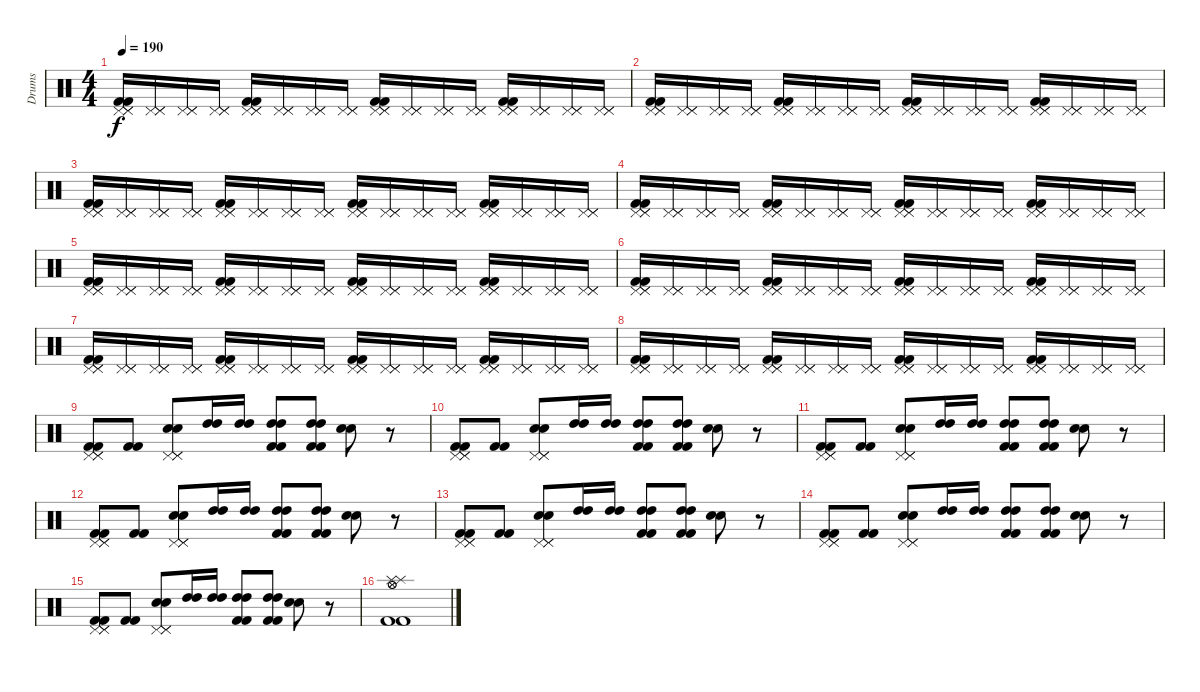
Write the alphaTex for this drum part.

\track ("Drums" "Drums") {instrument percussion}
\staff {score}
\articulation defaults
\ts (4 4)
\tempo 190
\clef neutral
\ks c
("Pedal Hi-Hat (hit)" "Pedal Hi-Hat (hit)" "Pedal Hi-Hat (hit)" "Kick (hit) 2" "Kick (hit) 2").16{dy f} ("Pedal Hi-Hat (hit)" "Pedal Hi-Hat (hit)" "Pedal Hi-Hat (hit)").16 ("Pedal Hi-Hat (hit)" "Pedal Hi-Hat (hit)" "Pedal Hi-Hat (hit)").16 ("Pedal Hi-Hat (hit)" "Pedal Hi-Hat (hit)" "Pedal Hi-Hat (hit)").16 ("Pedal Hi-Hat (hit)" "Pedal Hi-Hat (hit)" "Pedal Hi-Hat (hit)" "Kick (hit) 2" "Kick (hit) 2").16 ("Pedal Hi-Hat (hit)" "Pedal Hi-Hat (hit)" "Pedal Hi-Hat (hit)").16 ("Pedal Hi-Hat (hit)" "Pedal Hi-Hat (hit)" "Pedal Hi-Hat (hit)").16 ("Pedal Hi-Hat (hit)" "Pedal Hi-Hat (hit)" "Pedal Hi-Hat (hit)").16 ("Pedal Hi-Hat (hit)" "Pedal Hi-Hat (hit)" "Pedal Hi-Hat (hit)" "Kick (hit) 2" "Kick (hit) 2").16 ("Pedal Hi-Hat (hit)" "Pedal Hi-Hat (hit)" "Pedal Hi-Hat (hit)").16 ("Pedal Hi-Hat (hit)" "Pedal Hi-Hat (hit)" "Pedal Hi-Hat (hit)").16 ("Pedal Hi-Hat (hit)" "Pedal Hi-Hat (hit)" "Pedal Hi-Hat (hit)").16 ("Pedal Hi-Hat (hit)" "Pedal Hi-Hat (hit)" "Pedal Hi-Hat (hit)" "Kick (hit) 2" "Kick (hit) 2").16 ("Pedal Hi-Hat (hit)" "Pedal Hi-Hat (hit)" "Pedal Hi-Hat (hit)").16 ("Pedal Hi-Hat (hit)" "Pedal Hi-Hat (hit)" "Pedal Hi-Hat (hit)").16 ("Pedal Hi-Hat (hit)" "Pedal Hi-Hat (hit)" "Pedal Hi-Hat (hit)").16 |
("Pedal Hi-Hat (hit)" "Pedal Hi-Hat (hit)" "Pedal Hi-Hat (hit)" "Kick (hit) 2" "Kick (hit) 2").16 ("Pedal Hi-Hat (hit)" "Pedal Hi-Hat (hit)" "Pedal Hi-Hat (hit)").16 ("Pedal Hi-Hat (hit)" "Pedal Hi-Hat (hit)" "Pedal Hi-Hat (hit)").16 ("Pedal Hi-Hat (hit)" "Pedal Hi-Hat (hit)" "Pedal Hi-Hat (hit)").16 ("Pedal Hi-Hat (hit)" "Pedal Hi-Hat (hit)" "Pedal Hi-Hat (hit)" "Kick (hit) 2" "Kick (hit) 2").16 ("Pedal Hi-Hat (hit)" "Pedal Hi-Hat (hit)" "Pedal Hi-Hat (hit)").16 ("Pedal Hi-Hat (hit)" "Pedal Hi-Hat (hit)" "Pedal Hi-Hat (hit)").16 ("Pedal Hi-Hat (hit)" "Pedal Hi-Hat (hit)" "Pedal Hi-Hat (hit)").16 ("Pedal Hi-Hat (hit)" "Pedal Hi-Hat (hit)" "Pedal Hi-Hat (hit)" "Kick (hit) 2" "Kick (hit) 2").16 ("Pedal Hi-Hat (hit)" "Pedal Hi-Hat (hit)" "Pedal Hi-Hat (hit)").16 ("Pedal Hi-Hat (hit)" "Pedal Hi-Hat (hit)" "Pedal Hi-Hat (hit)").16 ("Pedal Hi-Hat (hit)" "Pedal Hi-Hat (hit)" "Pedal Hi-Hat (hit)").16 ("Pedal Hi-Hat (hit)" "Pedal Hi-Hat (hit)" "Pedal Hi-Hat (hit)" "Kick (hit) 2" "Kick (hit) 2").16 ("Pedal Hi-Hat (hit)" "Pedal Hi-Hat (hit)" "Pedal Hi-Hat (hit)").16 ("Pedal Hi-Hat (hit)" "Pedal Hi-Hat (hit)" "Pedal Hi-Hat (hit)").16 ("Pedal Hi-Hat (hit)" "Pedal Hi-Hat (hit)" "Pedal Hi-Hat (hit)").16 |
("Pedal Hi-Hat (hit)" "Pedal Hi-Hat (hit)" "Pedal Hi-Hat (hit)" "Kick (hit) 2" "Kick (hit) 2").16 ("Pedal Hi-Hat (hit)" "Pedal Hi-Hat (hit)" "Pedal Hi-Hat (hit)").16 ("Pedal Hi-Hat (hit)" "Pedal Hi-Hat (hit)" "Pedal Hi-Hat (hit)").16 ("Pedal Hi-Hat (hit)" "Pedal Hi-Hat (hit)" "Pedal Hi-Hat (hit)").16 ("Pedal Hi-Hat (hit)" "Pedal Hi-Hat (hit)" "Pedal Hi-Hat (hit)" "Kick (hit) 2" "Kick (hit) 2").16 ("Pedal Hi-Hat (hit)" "Pedal Hi-Hat (hit)" "Pedal Hi-Hat (hit)").16 ("Pedal Hi-Hat (hit)" "Pedal Hi-Hat (hit)" "Pedal Hi-Hat (hit)").16 ("Pedal Hi-Hat (hit)" "Pedal Hi-Hat (hit)" "Pedal Hi-Hat (hit)").16 ("Pedal Hi-Hat (hit)" "Pedal Hi-Hat (hit)" "Pedal Hi-Hat (hit)" "Kick (hit) 2" "Kick (hit) 2").16 ("Pedal Hi-Hat (hit)" "Pedal Hi-Hat (hit)" "Pedal Hi-Hat (hit)").16 ("Pedal Hi-Hat (hit)" "Pedal Hi-Hat (hit)" "Pedal Hi-Hat (hit)").16 ("Pedal Hi-Hat (hit)" "Pedal Hi-Hat (hit)" "Pedal Hi-Hat (hit)").16 ("Pedal Hi-Hat (hit)" "Pedal Hi-Hat (hit)" "Pedal Hi-Hat (hit)" "Kick (hit) 2" "Kick (hit) 2").16 ("Pedal Hi-Hat (hit)" "Pedal Hi-Hat (hit)" "Pedal Hi-Hat (hit)").16 ("Pedal Hi-Hat (hit)" "Pedal Hi-Hat (hit)" "Pedal Hi-Hat (hit)").16 ("Pedal Hi-Hat (hit)" "Pedal Hi-Hat (hit)" "Pedal Hi-Hat (hit)").16 |
("Pedal Hi-Hat (hit)" "Pedal Hi-Hat (hit)" "Pedal Hi-Hat (hit)" "Kick (hit) 2" "Kick (hit) 2").16 ("Pedal Hi-Hat (hit)" "Pedal Hi-Hat (hit)" "Pedal Hi-Hat (hit)").16 ("Pedal Hi-Hat (hit)" "Pedal Hi-Hat (hit)" "Pedal Hi-Hat (hit)").16 ("Pedal Hi-Hat (hit)" "Pedal Hi-Hat (hit)" "Pedal Hi-Hat (hit)").16 ("Pedal Hi-Hat (hit)" "Pedal Hi-Hat (hit)" "Pedal Hi-Hat (hit)" "Kick (hit) 2" "Kick (hit) 2").16 ("Pedal Hi-Hat (hit)" "Pedal Hi-Hat (hit)" "Pedal Hi-Hat (hit)").16 ("Pedal Hi-Hat (hit)" "Pedal Hi-Hat (hit)" "Pedal Hi-Hat (hit)").16 ("Pedal Hi-Hat (hit)" "Pedal Hi-Hat (hit)" "Pedal Hi-Hat (hit)").16 ("Pedal Hi-Hat (hit)" "Pedal Hi-Hat (hit)" "Pedal Hi-Hat (hit)" "Kick (hit) 2" "Kick (hit) 2").16 ("Pedal Hi-Hat (hit)" "Pedal Hi-Hat (hit)" "Pedal Hi-Hat (hit)").16 ("Pedal Hi-Hat (hit)" "Pedal Hi-Hat (hit)" "Pedal Hi-Hat (hit)").16 ("Pedal Hi-Hat (hit)" "Pedal Hi-Hat (hit)" "Pedal Hi-Hat (hit)").16 ("Pedal Hi-Hat (hit)" "Pedal Hi-Hat (hit)" "Pedal Hi-Hat (hit)" "Kick (hit) 2" "Kick (hit) 2").16 ("Pedal Hi-Hat (hit)" "Pedal Hi-Hat (hit)" "Pedal Hi-Hat (hit)").16 ("Pedal Hi-Hat (hit)" "Pedal Hi-Hat (hit)" "Pedal Hi-Hat (hit)").16 ("Pedal Hi-Hat (hit)" "Pedal Hi-Hat (hit)" "Pedal Hi-Hat (hit)").16 |
("Pedal Hi-Hat (hit)" "Pedal Hi-Hat (hit)" "Pedal Hi-Hat (hit)" "Kick (hit) 2" "Kick (hit) 2").16 ("Pedal Hi-Hat (hit)" "Pedal Hi-Hat (hit)" "Pedal Hi-Hat (hit)").16 ("Pedal Hi-Hat (hit)" "Pedal Hi-Hat (hit)" "Pedal Hi-Hat (hit)").16 ("Pedal Hi-Hat (hit)" "Pedal Hi-Hat (hit)" "Pedal Hi-Hat (hit)").16 ("Pedal Hi-Hat (hit)" "Pedal Hi-Hat (hit)" "Pedal Hi-Hat (hit)" "Kick (hit) 2" "Kick (hit) 2").16 ("Pedal Hi-Hat (hit)" "Pedal Hi-Hat (hit)" "Pedal Hi-Hat (hit)").16 ("Pedal Hi-Hat (hit)" "Pedal Hi-Hat (hit)" "Pedal Hi-Hat (hit)").16 ("Pedal Hi-Hat (hit)" "Pedal Hi-Hat (hit)" "Pedal Hi-Hat (hit)").16 ("Pedal Hi-Hat (hit)" "Pedal Hi-Hat (hit)" "Pedal Hi-Hat (hit)" "Kick (hit) 2" "Kick (hit) 2").16 ("Pedal Hi-Hat (hit)" "Pedal Hi-Hat (hit)" "Pedal Hi-Hat (hit)").16 ("Pedal Hi-Hat (hit)" "Pedal Hi-Hat (hit)" "Pedal Hi-Hat (hit)").16 ("Pedal Hi-Hat (hit)" "Pedal Hi-Hat (hit)" "Pedal Hi-Hat (hit)").16 ("Pedal Hi-Hat (hit)" "Pedal Hi-Hat (hit)" "Pedal Hi-Hat (hit)" "Kick (hit) 2" "Kick (hit) 2").16 ("Pedal Hi-Hat (hit)" "Pedal Hi-Hat (hit)" "Pedal Hi-Hat (hit)").16 ("Pedal Hi-Hat (hit)" "Pedal Hi-Hat (hit)" "Pedal Hi-Hat (hit)").16 ("Pedal Hi-Hat (hit)" "Pedal Hi-Hat (hit)" "Pedal Hi-Hat (hit)").16 |
("Pedal Hi-Hat (hit)" "Pedal Hi-Hat (hit)" "Pedal Hi-Hat (hit)" "Kick (hit) 2" "Kick (hit) 2").16 ("Pedal Hi-Hat (hit)" "Pedal Hi-Hat (hit)" "Pedal Hi-Hat (hit)").16 ("Pedal Hi-Hat (hit)" "Pedal Hi-Hat (hit)" "Pedal Hi-Hat (hit)").16 ("Pedal Hi-Hat (hit)" "Pedal Hi-Hat (hit)" "Pedal Hi-Hat (hit)").16 ("Pedal Hi-Hat (hit)" "Pedal Hi-Hat (hit)" "Pedal Hi-Hat (hit)" "Kick (hit) 2" "Kick (hit) 2").16 ("Pedal Hi-Hat (hit)" "Pedal Hi-Hat (hit)" "Pedal Hi-Hat (hit)").16 ("Pedal Hi-Hat (hit)" "Pedal Hi-Hat (hit)" "Pedal Hi-Hat (hit)").16 ("Pedal Hi-Hat (hit)" "Pedal Hi-Hat (hit)" "Pedal Hi-Hat (hit)").16 ("Pedal Hi-Hat (hit)" "Pedal Hi-Hat (hit)" "Pedal Hi-Hat (hit)" "Kick (hit) 2" "Kick (hit) 2").16 ("Pedal Hi-Hat (hit)" "Pedal Hi-Hat (hit)" "Pedal Hi-Hat (hit)").16 ("Pedal Hi-Hat (hit)" "Pedal Hi-Hat (hit)" "Pedal Hi-Hat (hit)").16 ("Pedal Hi-Hat (hit)" "Pedal Hi-Hat (hit)" "Pedal Hi-Hat (hit)").16 ("Pedal Hi-Hat (hit)" "Pedal Hi-Hat (hit)" "Pedal Hi-Hat (hit)" "Kick (hit) 2" "Kick (hit) 2").16 ("Pedal Hi-Hat (hit)" "Pedal Hi-Hat (hit)" "Pedal Hi-Hat (hit)").16 ("Pedal Hi-Hat (hit)" "Pedal Hi-Hat (hit)" "Pedal Hi-Hat (hit)").16 ("Pedal Hi-Hat (hit)" "Pedal Hi-Hat (hit)" "Pedal Hi-Hat (hit)").16 |
("Pedal Hi-Hat (hit)" "Pedal Hi-Hat (hit)" "Pedal Hi-Hat (hit)" "Kick (hit) 2" "Kick (hit) 2").16 ("Pedal Hi-Hat (hit)" "Pedal Hi-Hat (hit)" "Pedal Hi-Hat (hit)").16 ("Pedal Hi-Hat (hit)" "Pedal Hi-Hat (hit)" "Pedal Hi-Hat (hit)").16 ("Pedal Hi-Hat (hit)" "Pedal Hi-Hat (hit)" "Pedal Hi-Hat (hit)").16 ("Pedal Hi-Hat (hit)" "Pedal Hi-Hat (hit)" "Pedal Hi-Hat (hit)" "Kick (hit) 2" "Kick (hit) 2").16 ("Pedal Hi-Hat (hit)" "Pedal Hi-Hat (hit)" "Pedal Hi-Hat (hit)").16 ("Pedal Hi-Hat (hit)" "Pedal Hi-Hat (hit)" "Pedal Hi-Hat (hit)").16 ("Pedal Hi-Hat (hit)" "Pedal Hi-Hat (hit)" "Pedal Hi-Hat (hit)").16 ("Pedal Hi-Hat (hit)" "Pedal Hi-Hat (hit)" "Pedal Hi-Hat (hit)" "Kick (hit) 2" "Kick (hit) 2").16 ("Pedal Hi-Hat (hit)" "Pedal Hi-Hat (hit)" "Pedal Hi-Hat (hit)").16 ("Pedal Hi-Hat (hit)" "Pedal Hi-Hat (hit)" "Pedal Hi-Hat (hit)").16 ("Pedal Hi-Hat (hit)" "Pedal Hi-Hat (hit)" "Pedal Hi-Hat (hit)").16 ("Pedal Hi-Hat (hit)" "Pedal Hi-Hat (hit)" "Pedal Hi-Hat (hit)" "Kick (hit) 2" "Kick (hit) 2").16 ("Pedal Hi-Hat (hit)" "Pedal Hi-Hat (hit)" "Pedal Hi-Hat (hit)").16 ("Pedal Hi-Hat (hit)" "Pedal Hi-Hat (hit)" "Pedal Hi-Hat (hit)").16 ("Pedal Hi-Hat (hit)" "Pedal Hi-Hat (hit)" "Pedal Hi-Hat (hit)").16 |
("Pedal Hi-Hat (hit)" "Pedal Hi-Hat (hit)" "Pedal Hi-Hat (hit)" "Kick (hit) 2" "Kick (hit) 2").16 ("Pedal Hi-Hat (hit)" "Pedal Hi-Hat (hit)" "Pedal Hi-Hat (hit)").16 ("Pedal Hi-Hat (hit)" "Pedal Hi-Hat (hit)" "Pedal Hi-Hat (hit)").16 ("Pedal Hi-Hat (hit)" "Pedal Hi-Hat (hit)" "Pedal Hi-Hat (hit)").16 ("Pedal Hi-Hat (hit)" "Pedal Hi-Hat (hit)" "Pedal Hi-Hat (hit)" "Kick (hit) 2" "Kick (hit) 2").16 ("Pedal Hi-Hat (hit)" "Pedal Hi-Hat (hit)" "Pedal Hi-Hat (hit)").16 ("Pedal Hi-Hat (hit)" "Pedal Hi-Hat (hit)" "Pedal Hi-Hat (hit)").16 ("Pedal Hi-Hat (hit)" "Pedal Hi-Hat (hit)" "Pedal Hi-Hat (hit)").16 ("Pedal Hi-Hat (hit)" "Pedal Hi-Hat (hit)" "Pedal Hi-Hat (hit)" "Kick (hit) 2" "Kick (hit) 2").16 ("Pedal Hi-Hat (hit)" "Pedal Hi-Hat (hit)" "Pedal Hi-Hat (hit)").16 ("Pedal Hi-Hat (hit)" "Pedal Hi-Hat (hit)" "Pedal Hi-Hat (hit)").16 ("Pedal Hi-Hat (hit)" "Pedal Hi-Hat (hit)" "Pedal Hi-Hat (hit)").16 ("Pedal Hi-Hat (hit)" "Pedal Hi-Hat (hit)" "Pedal Hi-Hat (hit)" "Kick (hit) 2" "Kick (hit) 2").16 ("Pedal Hi-Hat (hit)" "Pedal Hi-Hat (hit)" "Pedal Hi-Hat (hit)").16 ("Pedal Hi-Hat (hit)" "Pedal Hi-Hat (hit)" "Pedal Hi-Hat (hit)").16 ("Pedal Hi-Hat (hit)" "Pedal Hi-Hat (hit)" "Pedal Hi-Hat (hit)").16 |
("Kick (hit) 2" "Kick (hit) 2" "Pedal Hi-Hat (hit)" "Pedal Hi-Hat (hit)" "Pedal Hi-Hat (hit)").8 ("Kick (hit) 2" "Kick (hit) 2").8 ("Snare (hit) 2" "Snare (hit) 2" "Pedal Hi-Hat (hit)" "Pedal Hi-Hat (hit)" "Pedal Hi-Hat (hit)").8 ("High Tom (hit)" "High Tom (hit)").16 ("High Tom (hit)" "High Tom (hit)").16 ("High Tom (hit)" "High Tom (hit)" "Kick (hit) 2" "Kick (hit) 2").8 ("High Tom (hit)" "High Tom (hit)" "Kick (hit) 2" "Kick (hit) 2").8 ("Snare (hit) 2" "Snare (hit) 2").8 r.8 |
("Kick (hit) 2" "Kick (hit) 2" "Pedal Hi-Hat (hit)" "Pedal Hi-Hat (hit)" "Pedal Hi-Hat (hit)").8 ("Kick (hit) 2" "Kick (hit) 2").8 ("Snare (hit) 2" "Snare (hit) 2" "Pedal Hi-Hat (hit)" "Pedal Hi-Hat (hit)" "Pedal Hi-Hat (hit)").8 ("High Tom (hit)" "High Tom (hit)").16 ("High Tom (hit)" "High Tom (hit)").16 ("High Tom (hit)" "High Tom (hit)" "Kick (hit) 2" "Kick (hit) 2").8 ("High Tom (hit)" "High Tom (hit)" "Kick (hit) 2" "Kick (hit) 2").8 ("Snare (hit) 2" "Snare (hit) 2").8 r.8 |
("Kick (hit) 2" "Kick (hit) 2" "Pedal Hi-Hat (hit)" "Pedal Hi-Hat (hit)" "Pedal Hi-Hat (hit)").8 ("Kick (hit) 2" "Kick (hit) 2").8 ("Snare (hit) 2" "Snare (hit) 2" "Pedal Hi-Hat (hit)" "Pedal Hi-Hat (hit)" "Pedal Hi-Hat (hit)").8 ("High Tom (hit)" "High Tom (hit)").16 ("High Tom (hit)" "High Tom (hit)").16 ("High Tom (hit)" "High Tom (hit)" "Kick (hit) 2" "Kick (hit) 2").8 ("High Tom (hit)" "High Tom (hit)" "Kick (hit) 2" "Kick (hit) 2").8 ("Snare (hit) 2" "Snare (hit) 2").8 r.8 |
("Kick (hit) 2" "Kick (hit) 2" "Pedal Hi-Hat (hit)" "Pedal Hi-Hat (hit)" "Pedal Hi-Hat (hit)").8 ("Kick (hit) 2" "Kick (hit) 2").8 ("Snare (hit) 2" "Snare (hit) 2" "Pedal Hi-Hat (hit)" "Pedal Hi-Hat (hit)" "Pedal Hi-Hat (hit)").8 ("High Tom (hit)" "High Tom (hit)").16 ("High Tom (hit)" "High Tom (hit)").16 ("High Tom (hit)" "High Tom (hit)" "Kick (hit) 2" "Kick (hit) 2").8 ("High Tom (hit)" "High Tom (hit)" "Kick (hit) 2" "Kick (hit) 2").8 ("Snare (hit) 2" "Snare (hit) 2").8 r.8 |
("Kick (hit) 2" "Kick (hit) 2" "Pedal Hi-Hat (hit)" "Pedal Hi-Hat (hit)" "Pedal Hi-Hat (hit)").8 ("Kick (hit) 2" "Kick (hit) 2").8 ("Snare (hit) 2" "Snare (hit) 2" "Pedal Hi-Hat (hit)" "Pedal Hi-Hat (hit)" "Pedal Hi-Hat (hit)").8 ("High Tom (hit)" "High Tom (hit)").16 ("High Tom (hit)" "High Tom (hit)").16 ("High Tom (hit)" "High Tom (hit)" "Kick (hit) 2" "Kick (hit) 2").8 ("High Tom (hit)" "High Tom (hit)" "Kick (hit) 2" "Kick (hit) 2").8 ("Snare (hit) 2" "Snare (hit) 2").8 r.8 |
("Kick (hit) 2" "Kick (hit) 2" "Pedal Hi-Hat (hit)" "Pedal Hi-Hat (hit)" "Pedal Hi-Hat (hit)").8 ("Kick (hit) 2" "Kick (hit) 2").8 ("Snare (hit) 2" "Snare (hit) 2" "Pedal Hi-Hat (hit)" "Pedal Hi-Hat (hit)" "Pedal Hi-Hat (hit)").8 ("High Tom (hit)" "High Tom (hit)").16 ("High Tom (hit)" "High Tom (hit)").16 ("High Tom (hit)" "High Tom (hit)" "Kick (hit) 2" "Kick (hit) 2").8 ("High Tom (hit)" "High Tom (hit)" "Kick (hit) 2" "Kick (hit) 2").8 ("Snare (hit) 2" "Snare (hit) 2").8 r.8 |
("Kick (hit) 2" "Kick (hit) 2" "Pedal Hi-Hat (hit)" "Pedal Hi-Hat (hit)" "Pedal Hi-Hat (hit)").8 ("Kick (hit) 2" "Kick (hit) 2").8 ("Snare (hit) 2" "Snare (hit) 2" "Pedal Hi-Hat (hit)" "Pedal Hi-Hat (hit)" "Pedal Hi-Hat (hit)").8 ("High Tom (hit)" "High Tom (hit)").16 ("High Tom (hit)" "High Tom (hit)").16 ("High Tom (hit)" "High Tom (hit)" "Kick (hit) 2" "Kick (hit) 2").8 ("High Tom (hit)" "High Tom (hit)" "Kick (hit) 2" "Kick (hit) 2").8 ("Snare (hit) 2" "Snare (hit) 2").8 r.8 |
("Hi-Hat (open)" "Hi-Hat (open)" "Kick (hit) 2" "Kick (hit) 2" "Splash (hit)" "Splash (hit)").1
